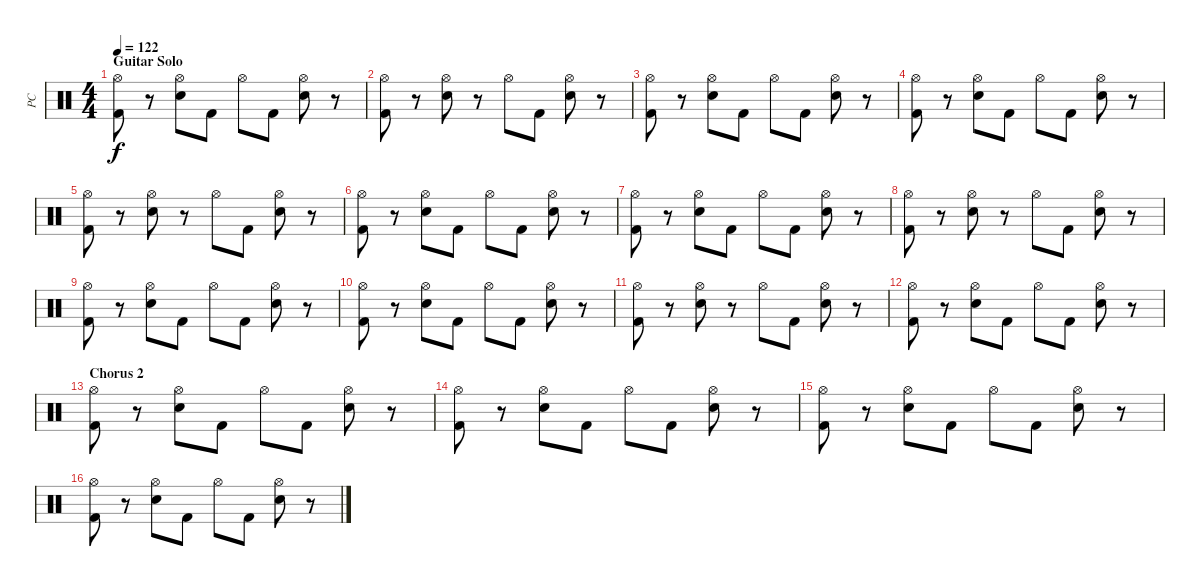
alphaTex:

\track ("PC" "PC") {instrument percussion}
\staff {score}
\articulation defaults
\ts (4 4)
\section ("" "Guitar Solo")
\tempo 122
\clef neutral
\ks c
("Hi-Hat (open)" "Kick (hit) 2").8{dy f} r.8 ("Hi-Hat (open)" "Electric Snare (hit)").8 "Kick (hit) 2".8 "Hi-Hat (open)".8 "Kick (hit) 2".8 ("Hi-Hat (open)" "Electric Snare (hit)").8 r.8 |
("Hi-Hat (open)" "Kick (hit) 2").8 r.8 ("Hi-Hat (open)" "Electric Snare (hit)").8 r.8 "Hi-Hat (open)".8 "Kick (hit) 2".8 ("Hi-Hat (open)" "Electric Snare (hit)").8 r.8 |
("Hi-Hat (open)" "Kick (hit) 2").8 r.8 ("Hi-Hat (open)" "Electric Snare (hit)").8 "Kick (hit) 2".8 "Hi-Hat (open)".8 "Kick (hit) 2".8 ("Hi-Hat (open)" "Electric Snare (hit)").8 r.8 |
("Hi-Hat (open)" "Kick (hit) 2").8 r.8 ("Hi-Hat (open)" "Electric Snare (hit)").8 "Kick (hit) 2".8 "Hi-Hat (open)".8 "Kick (hit) 2".8 ("Hi-Hat (open)" "Electric Snare (hit)").8 r.8 |
("Hi-Hat (open)" "Kick (hit) 2").8 r.8 ("Hi-Hat (open)" "Electric Snare (hit)").8 r.8 "Hi-Hat (open)".8 "Kick (hit) 2".8 ("Hi-Hat (open)" "Electric Snare (hit)").8 r.8 |
("Hi-Hat (open)" "Kick (hit) 2").8 r.8 ("Hi-Hat (open)" "Electric Snare (hit)").8 "Kick (hit) 2".8 "Hi-Hat (open)".8 "Kick (hit) 2".8 ("Hi-Hat (open)" "Electric Snare (hit)").8 r.8 |
("Hi-Hat (open)" "Kick (hit) 2").8 r.8 ("Hi-Hat (open)" "Electric Snare (hit)").8 "Kick (hit) 2".8 "Hi-Hat (open)".8 "Kick (hit) 2".8 ("Hi-Hat (open)" "Electric Snare (hit)").8 r.8 |
("Hi-Hat (open)" "Kick (hit) 2").8 r.8 ("Hi-Hat (open)" "Electric Snare (hit)").8 r.8 "Hi-Hat (open)".8 "Kick (hit) 2".8 ("Hi-Hat (open)" "Electric Snare (hit)").8 r.8 |
("Hi-Hat (open)" "Kick (hit) 2").8 r.8 ("Hi-Hat (open)" "Electric Snare (hit)").8 "Kick (hit) 2".8 "Hi-Hat (open)".8 "Kick (hit) 2".8 ("Hi-Hat (open)" "Electric Snare (hit)").8 r.8 |
("Hi-Hat (open)" "Kick (hit) 2").8 r.8 ("Hi-Hat (open)" "Electric Snare (hit)").8 "Kick (hit) 2".8 "Hi-Hat (open)".8 "Kick (hit) 2".8 ("Hi-Hat (open)" "Electric Snare (hit)").8 r.8 |
("Hi-Hat (open)" "Kick (hit) 2").8 r.8 ("Hi-Hat (open)" "Electric Snare (hit)").8 r.8 "Hi-Hat (open)".8 "Kick (hit) 2".8 ("Hi-Hat (open)" "Electric Snare (hit)").8 r.8 |
("Hi-Hat (open)" "Kick (hit) 2").8 r.8 ("Hi-Hat (open)" "Electric Snare (hit)").8 "Kick (hit) 2".8 "Hi-Hat (open)".8 "Kick (hit) 2".8 ("Hi-Hat (open)" "Electric Snare (hit)").8 r.8 |
\section ("" "Chorus 2")
("Hi-Hat (open)" "Kick (hit) 2").8 r.8 ("Hi-Hat (open)" "Electric Snare (hit)").8 "Kick (hit) 2".8 "Hi-Hat (open)".8 "Kick (hit) 2".8 ("Hi-Hat (open)" "Electric Snare (hit)").8 r.8 |
("Hi-Hat (open)" "Kick (hit) 2").8 r.8 ("Hi-Hat (open)" "Electric Snare (hit)").8 "Kick (hit) 2".8 "Hi-Hat (open)".8 "Kick (hit) 2".8 ("Hi-Hat (open)" "Electric Snare (hit)").8 r.8 |
("Hi-Hat (open)" "Kick (hit) 2").8 r.8 ("Hi-Hat (open)" "Electric Snare (hit)").8 "Kick (hit) 2".8 "Hi-Hat (open)".8 "Kick (hit) 2".8 ("Hi-Hat (open)" "Electric Snare (hit)").8 r.8 |
("Hi-Hat (open)" "Kick (hit) 2").8 r.8 ("Hi-Hat (open)" "Electric Snare (hit)").8 "Kick (hit) 2".8 "Hi-Hat (open)".8 "Kick (hit) 2".8 ("Hi-Hat (open)" "Electric Snare (hit)").8 r.8
